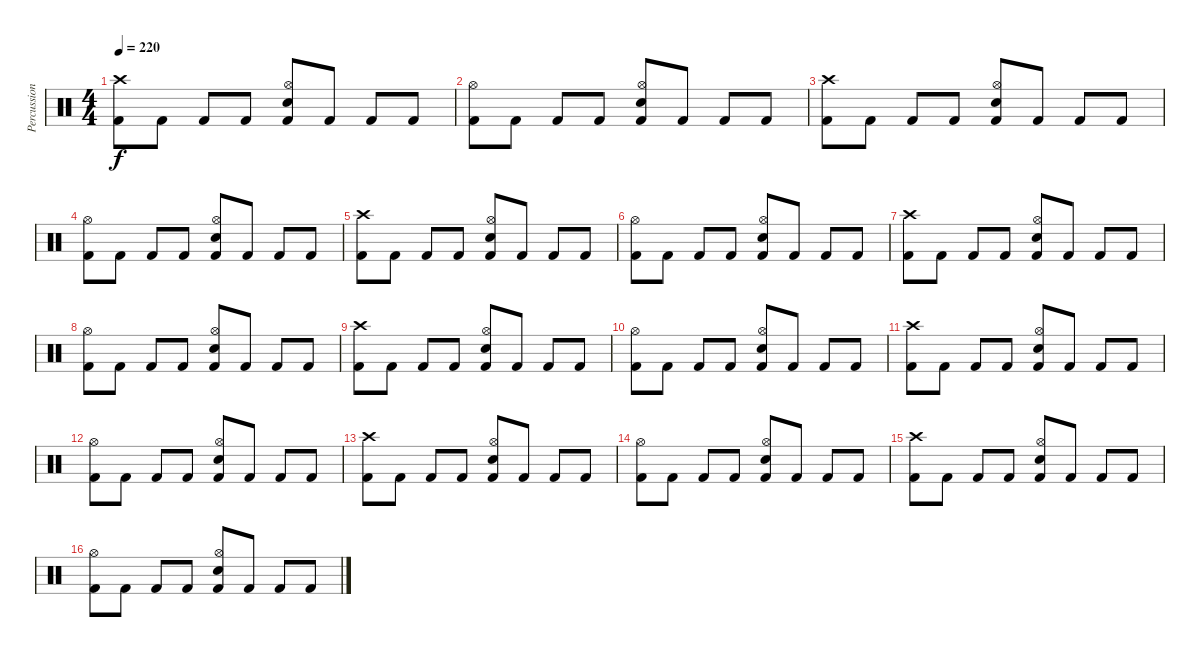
\track ("Percussion" "Percussion") {instrument percussion}
\staff {score}
\articulation defaults
\ts (4 4)
\tempo 220
\clef neutral
\ks c
("Crash high (hit)" "Kick (hit) 2").8{dy f} "Kick (hit) 2".8 "Kick (hit) 2".8 "Kick (hit) 2".8 ("Hi-Hat (open)" "Electric Snare (hit)" "Kick (hit) 2").8 "Kick (hit) 2".8 "Kick (hit) 2".8 "Kick (hit) 2".8 |
("Hi-Hat (open)" "Kick (hit) 2").8 "Kick (hit) 2".8 "Kick (hit) 2".8 "Kick (hit) 2".8 ("Hi-Hat (open)" "Electric Snare (hit)" "Kick (hit) 2").8 "Kick (hit) 2".8 "Kick (hit) 2".8 "Kick (hit) 2".8 |
("Crash high (hit)" "Kick (hit) 2").8 "Kick (hit) 2".8 "Kick (hit) 2".8 "Kick (hit) 2".8 ("Hi-Hat (open)" "Electric Snare (hit)" "Kick (hit) 2").8 "Kick (hit) 2".8 "Kick (hit) 2".8 "Kick (hit) 2".8 |
("Hi-Hat (open)" "Kick (hit) 2").8 "Kick (hit) 2".8 "Kick (hit) 2".8 "Kick (hit) 2".8 ("Hi-Hat (open)" "Electric Snare (hit)" "Kick (hit) 2").8 "Kick (hit) 2".8 "Kick (hit) 2".8 "Kick (hit) 2".8 |
("Crash high (hit)" "Kick (hit) 2").8 "Kick (hit) 2".8 "Kick (hit) 2".8 "Kick (hit) 2".8 ("Hi-Hat (open)" "Electric Snare (hit)" "Kick (hit) 2").8 "Kick (hit) 2".8 "Kick (hit) 2".8 "Kick (hit) 2".8 |
("Hi-Hat (open)" "Kick (hit) 2").8 "Kick (hit) 2".8 "Kick (hit) 2".8 "Kick (hit) 2".8 ("Hi-Hat (open)" "Electric Snare (hit)" "Kick (hit) 2").8 "Kick (hit) 2".8 "Kick (hit) 2".8 "Kick (hit) 2".8 |
("Crash high (hit)" "Kick (hit) 2").8 "Kick (hit) 2".8 "Kick (hit) 2".8 "Kick (hit) 2".8 ("Hi-Hat (open)" "Electric Snare (hit)" "Kick (hit) 2").8 "Kick (hit) 2".8 "Kick (hit) 2".8 "Kick (hit) 2".8 |
("Hi-Hat (open)" "Kick (hit) 2").8 "Kick (hit) 2".8 "Kick (hit) 2".8 "Kick (hit) 2".8 ("Hi-Hat (open)" "Electric Snare (hit)" "Kick (hit) 2").8 "Kick (hit) 2".8 "Kick (hit) 2".8 "Kick (hit) 2".8 |
("Crash high (hit)" "Kick (hit) 2").8 "Kick (hit) 2".8 "Kick (hit) 2".8 "Kick (hit) 2".8 ("Hi-Hat (open)" "Electric Snare (hit)" "Kick (hit) 2").8 "Kick (hit) 2".8 "Kick (hit) 2".8 "Kick (hit) 2".8 |
("Hi-Hat (open)" "Kick (hit) 2").8 "Kick (hit) 2".8 "Kick (hit) 2".8 "Kick (hit) 2".8 ("Hi-Hat (open)" "Electric Snare (hit)" "Kick (hit) 2").8 "Kick (hit) 2".8 "Kick (hit) 2".8 "Kick (hit) 2".8 |
("Crash high (hit)" "Kick (hit) 2").8 "Kick (hit) 2".8 "Kick (hit) 2".8 "Kick (hit) 2".8 ("Hi-Hat (open)" "Electric Snare (hit)" "Kick (hit) 2").8 "Kick (hit) 2".8 "Kick (hit) 2".8 "Kick (hit) 2".8 |
("Hi-Hat (open)" "Kick (hit) 2").8 "Kick (hit) 2".8 "Kick (hit) 2".8 "Kick (hit) 2".8 ("Hi-Hat (open)" "Electric Snare (hit)" "Kick (hit) 2").8 "Kick (hit) 2".8 "Kick (hit) 2".8 "Kick (hit) 2".8 |
("Crash high (hit)" "Kick (hit) 2").8 "Kick (hit) 2".8 "Kick (hit) 2".8 "Kick (hit) 2".8 ("Hi-Hat (open)" "Electric Snare (hit)" "Kick (hit) 2").8 "Kick (hit) 2".8 "Kick (hit) 2".8 "Kick (hit) 2".8 |
("Hi-Hat (open)" "Kick (hit) 2").8 "Kick (hit) 2".8 "Kick (hit) 2".8 "Kick (hit) 2".8 ("Hi-Hat (open)" "Electric Snare (hit)" "Kick (hit) 2").8 "Kick (hit) 2".8 "Kick (hit) 2".8 "Kick (hit) 2".8 |
("Crash high (hit)" "Kick (hit) 2").8 "Kick (hit) 2".8 "Kick (hit) 2".8 "Kick (hit) 2".8 ("Hi-Hat (open)" "Electric Snare (hit)" "Kick (hit) 2").8 "Kick (hit) 2".8 "Kick (hit) 2".8 "Kick (hit) 2".8 |
("Hi-Hat (open)" "Kick (hit) 2").8 "Kick (hit) 2".8 "Kick (hit) 2".8 "Kick (hit) 2".8 ("Hi-Hat (open)" "Electric Snare (hit)" "Kick (hit) 2").8 "Kick (hit) 2".8 "Kick (hit) 2".8 "Kick (hit) 2".8
